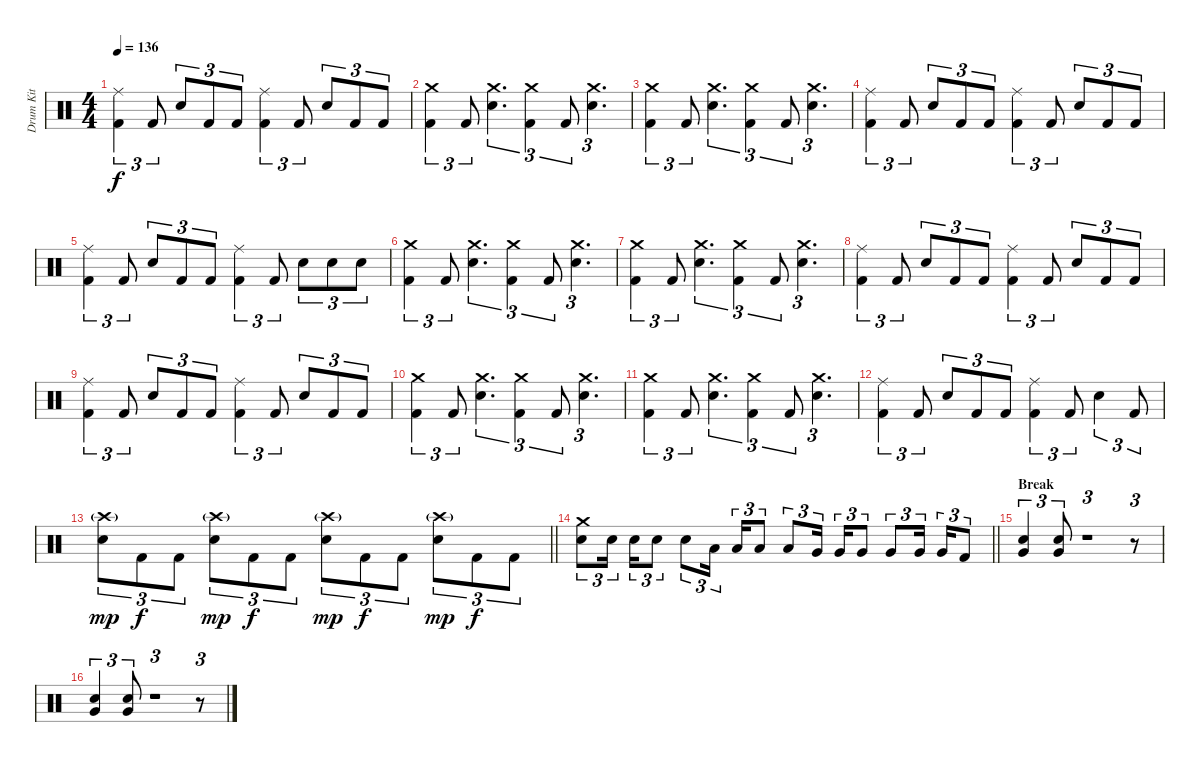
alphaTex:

\track ("Drum Kit" "Drum Kit") {instrument percussion}
\staff {score}
\articulation defaults
\ts (4 4)
\tempo 136
\clef neutral
\ks c
("Ride (middle)" "Kick (hit) 2").4{tu (3 2) dy f} "Kick (hit) 2".8{tu (3 2)} "Electric Snare (hit)".8{tu (3 2)} "Kick (hit) 2".8{tu (3 2)} "Kick (hit) 2".8{tu (3 2)} ("Ride (middle)" "Kick (hit) 2").4{tu (3 2)} "Kick (hit) 2".8{tu (3 2)} "Electric Snare (hit)".8{tu (3 2)} "Kick (hit) 2".8{tu (3 2)} "Kick (hit) 2".8{tu (3 2)} |
("Crash medium (hit)" "Kick (hit) 2").4{tu (3 2)} "Kick (hit) 2".8{tu (3 2)} ("Crash medium (hit)" "Electric Snare (hit)").4{d tu (3 2)} ("Crash medium (hit)" "Kick (hit) 2").4{tu (3 2)} "Kick (hit) 2".8{tu (3 2)} ("Crash medium (hit)" "Electric Snare (hit)").4{d tu (3 2)} |
("Crash medium (hit)" "Kick (hit) 2").4{tu (3 2)} "Kick (hit) 2".8{tu (3 2)} ("Crash medium (hit)" "Electric Snare (hit)").4{d tu (3 2)} ("Crash medium (hit)" "Kick (hit) 2").4{tu (3 2)} "Kick (hit) 2".8{tu (3 2)} ("Crash medium (hit)" "Electric Snare (hit)").4{d tu (3 2)} |
("Ride (middle)" "Kick (hit) 2").4{tu (3 2)} "Kick (hit) 2".8{tu (3 2)} "Electric Snare (hit)".8{tu (3 2)} "Kick (hit) 2".8{tu (3 2)} "Kick (hit) 2".8{tu (3 2)} ("Ride (middle)" "Kick (hit) 2").4{tu (3 2)} "Kick (hit) 2".8{tu (3 2)} "Electric Snare (hit)".8{tu (3 2)} "Kick (hit) 2".8{tu (3 2)} "Kick (hit) 2".8{tu (3 2)} |
("Ride (middle)" "Kick (hit) 2").4{tu (3 2)} "Kick (hit) 2".8{tu (3 2)} "Electric Snare (hit)".8{tu (3 2)} "Kick (hit) 2".8{tu (3 2)} "Kick (hit) 2".8{tu (3 2)} ("Ride (middle)" "Kick (hit) 2").4{tu (3 2)} "Kick (hit) 2".8{tu (3 2)} "Electric Snare (hit)".8{tu (3 2)} "Electric Snare (hit)".8{tu (3 2)} "Electric Snare (hit)".8{tu (3 2)} |
("Crash medium (hit)" "Kick (hit) 2").4{tu (3 2)} "Kick (hit) 2".8{tu (3 2)} ("Crash medium (hit)" "Electric Snare (hit)").4{d tu (3 2)} ("Crash medium (hit)" "Kick (hit) 2").4{tu (3 2)} "Kick (hit) 2".8{tu (3 2)} ("Crash medium (hit)" "Electric Snare (hit)").4{d tu (3 2)} |
("Crash medium (hit)" "Kick (hit) 2").4{tu (3 2)} "Kick (hit) 2".8{tu (3 2)} ("Crash medium (hit)" "Electric Snare (hit)").4{d tu (3 2)} ("Crash medium (hit)" "Kick (hit) 2").4{tu (3 2)} "Kick (hit) 2".8{tu (3 2)} ("Crash medium (hit)" "Electric Snare (hit)").4{d tu (3 2)} |
("Ride (middle)" "Kick (hit) 2").4{tu (3 2)} "Kick (hit) 2".8{tu (3 2)} "Electric Snare (hit)".8{tu (3 2)} "Kick (hit) 2".8{tu (3 2)} "Kick (hit) 2".8{tu (3 2)} ("Ride (middle)" "Kick (hit) 2").4{tu (3 2)} "Kick (hit) 2".8{tu (3 2)} "Electric Snare (hit)".8{tu (3 2)} "Kick (hit) 2".8{tu (3 2)} "Kick (hit) 2".8{tu (3 2)} |
("Ride (middle)" "Kick (hit) 2").4{tu (3 2)} "Kick (hit) 2".8{tu (3 2)} "Electric Snare (hit)".8{tu (3 2)} "Kick (hit) 2".8{tu (3 2)} "Kick (hit) 2".8{tu (3 2)} ("Ride (middle)" "Kick (hit) 2").4{tu (3 2)} "Kick (hit) 2".8{tu (3 2)} "Electric Snare (hit)".8{tu (3 2)} "Kick (hit) 2".8{tu (3 2)} "Kick (hit) 2".8{tu (3 2)} |
("Crash medium (hit)" "Kick (hit) 2").4{tu (3 2)} "Kick (hit) 2".8{tu (3 2)} ("Crash medium (hit)" "Electric Snare (hit)").4{d tu (3 2)} ("Crash medium (hit)" "Kick (hit) 2").4{tu (3 2)} "Kick (hit) 2".8{tu (3 2)} ("Crash medium (hit)" "Electric Snare (hit)").4{d tu (3 2)} |
("Crash medium (hit)" "Kick (hit) 2").4{tu (3 2)} "Kick (hit) 2".8{tu (3 2)} ("Crash medium (hit)" "Electric Snare (hit)").4{d tu (3 2)} ("Crash medium (hit)" "Kick (hit) 2").4{tu (3 2)} "Kick (hit) 2".8{tu (3 2)} ("Crash medium (hit)" "Electric Snare (hit)").4{d tu (3 2)} |
("Ride (middle)" "Kick (hit) 2").4{tu (3 2)} "Kick (hit) 2".8{tu (3 2)} "Electric Snare (hit)".8{tu (3 2)} "Kick (hit) 2".8{tu (3 2)} "Kick (hit) 2".8{tu (3 2)} ("Ride (middle)" "Kick (hit) 2").4{tu (3 2)} "Kick (hit) 2".8{tu (3 2)} "Electric Snare (hit)".4{tu (3 2)} "Kick (hit) 2".8{tu (3 2)} |
\barLineRight lightlight
("Crash high (hit)"{g} "Electric Snare (hit)").8{tu (3 2) dy mp} "Kick (hit) 2".8{tu (3 2) dy f} "Kick (hit) 2".8{tu (3 2)} ("Crash high (hit)"{g} "Electric Snare (hit)").8{tu (3 2) dy mp} "Kick (hit) 2".8{tu (3 2) dy f} "Kick (hit) 2".8{tu (3 2)} ("Crash high (hit)"{g} "Electric Snare (hit)").8{tu (3 2) dy mp} "Kick (hit) 2".8{tu (3 2) dy f} "Kick (hit) 2".8{tu (3 2)} ("Crash high (hit)"{g} "Electric Snare (hit)").8{tu (3 2) dy mp} "Kick (hit) 2".8{tu (3 2) dy f} "Kick (hit) 2".8{tu (3 2)} |
\section ("" "")
\barLineRight lightlight
("Crash medium (hit)" "Electric Snare (hit)").8{tu (3 2)} "Electric Snare (hit)".16{tu (3 2) beam splitsecondary} "Electric Snare (hit)".16{tu (3 2)} "Electric Snare (hit)".8{tu (3 2)} "Electric Snare (hit)".8{tu (3 2)} "Low Tom (hit)".16{tu (3 2) beam splitsecondary} "Low Tom (hit)".16{tu (3 2)} "Low Tom (hit)".8{tu (3 2)} "Low Tom (hit)".8{tu (3 2)} "Very Low Tom (hit)".16{tu (3 2) beam splitsecondary} "Very Low Tom (hit)".16{tu (3 2)} "Very Low Tom (hit)".8{tu (3 2)} "Very Low Tom (hit)".8{tu (3 2)} "Very Low Tom (hit)".16{tu (3 2) beam splitsecondary} "Very Low Tom (hit)".16{tu (3 2)} "Kick (hit) 2".8{tu (3 2)} |
\section ("" "Break")
("Very Low Tom (hit)" "Electric Snare (hit)").4{tu (3 2)} ("Very Low Tom (hit)" "Electric Snare (hit)").8{tu (3 2)} r.1{tu (3 2)} r.8{tu (3 2)} |
("Very Low Tom (hit)" "Electric Snare (hit)").4{tu (3 2)} ("Very Low Tom (hit)" "Electric Snare (hit)").8{tu (3 2)} r.1{tu (3 2)} r.8{tu (3 2)}
